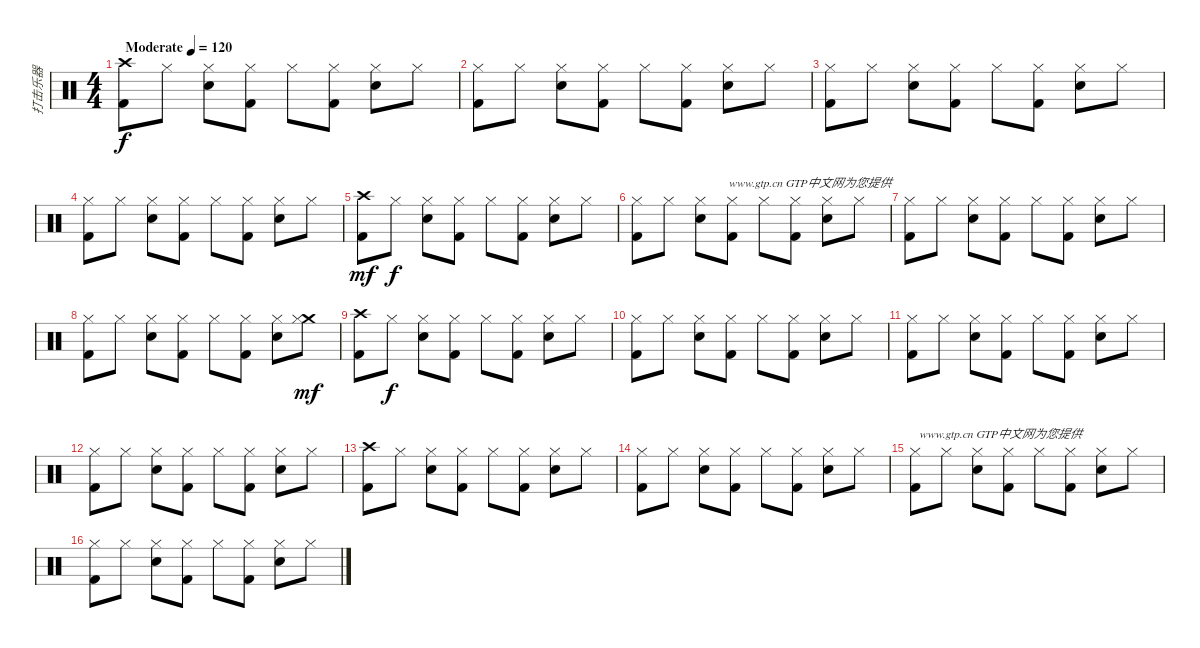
\track ("打击乐器" "打击乐器") {instrument percussion}
\staff {score}
\articulation defaults
\ts (4 4)
\tempo (120 "Moderate")
\clef neutral
\ks c
("Crash high (hit)" "Kick (hit) 2").8{dy f} "Hi-Hat (closed)".8 ("Hi-Hat (closed)" "Snare (hit) 2").8 ("Hi-Hat (closed)" "Kick (hit) 2").8 "Hi-Hat (closed)".8 ("Hi-Hat (closed)" "Kick (hit) 2").8 ("Hi-Hat (closed)" "Snare (hit) 2").8 "Hi-Hat (closed)".8 |
("Hi-Hat (closed)" "Kick (hit) 2").8 "Hi-Hat (closed)".8 ("Hi-Hat (closed)" "Snare (hit) 2").8 ("Hi-Hat (closed)" "Kick (hit) 2").8 "Hi-Hat (closed)".8 ("Hi-Hat (closed)" "Kick (hit) 2").8 ("Hi-Hat (closed)" "Snare (hit) 2").8 "Hi-Hat (closed)".8 |
("Hi-Hat (closed)" "Kick (hit) 2").8 "Hi-Hat (closed)".8 ("Hi-Hat (closed)" "Snare (hit) 2").8 ("Hi-Hat (closed)" "Kick (hit) 2").8 "Hi-Hat (closed)".8 ("Hi-Hat (closed)" "Kick (hit) 2").8 ("Hi-Hat (closed)" "Snare (hit) 2").8 "Hi-Hat (closed)".8 |
("Hi-Hat (closed)" "Kick (hit) 2").8 "Hi-Hat (closed)".8 ("Hi-Hat (closed)" "Snare (hit) 2").8 ("Hi-Hat (closed)" "Kick (hit) 2").8 "Hi-Hat (closed)".8 ("Hi-Hat (closed)" "Kick (hit) 2").8 ("Hi-Hat (closed)" "Snare (hit) 2").8 "Hi-Hat (closed)".8 |
("Crash high (hit)" "Kick (hit) 2").8{dy mf} "Hi-Hat (closed)".8{dy f} ("Hi-Hat (closed)" "Snare (hit) 2").8 ("Hi-Hat (closed)" "Kick (hit) 2").8 "Hi-Hat (closed)".8 ("Hi-Hat (closed)" "Kick (hit) 2").8 ("Hi-Hat (closed)" "Snare (hit) 2").8 "Hi-Hat (closed)".8 |
("Hi-Hat (closed)" "Kick (hit) 2").8 "Hi-Hat (closed)".8{txt "                    www.gtp.cn GTP中文网为您提供"} ("Hi-Hat (closed)" "Snare (hit) 2").8 ("Hi-Hat (closed)" "Kick (hit) 2").8 "Hi-Hat (closed)".8 ("Hi-Hat (closed)" "Kick (hit) 2").8 ("Hi-Hat (closed)" "Snare (hit) 2").8 "Hi-Hat (closed)".8 |
("Hi-Hat (closed)" "Kick (hit) 2").8 "Hi-Hat (closed)".8 ("Hi-Hat (closed)" "Snare (hit) 2").8 ("Hi-Hat (closed)" "Kick (hit) 2").8 "Hi-Hat (closed)".8 ("Hi-Hat (closed)" "Kick (hit) 2").8 ("Hi-Hat (closed)" "Snare (hit) 2").8 "Hi-Hat (closed)".8 |
("Hi-Hat (closed)" "Kick (hit) 2").8 "Hi-Hat (closed)".8 ("Hi-Hat (closed)" "Snare (hit) 2").8 ("Hi-Hat (closed)" "Kick (hit) 2").8 "Hi-Hat (closed)".8 ("Hi-Hat (closed)" "Kick (hit) 2").8 ("Hi-Hat (closed)" "Snare (hit) 2").8 ("Crash medium (hit)" "Hi-Hat (closed)").8{dy mf} |
("Crash high (hit)" "Kick (hit) 2").8 "Hi-Hat (closed)".8{dy f} ("Hi-Hat (closed)" "Snare (hit) 2").8 ("Hi-Hat (closed)" "Kick (hit) 2").8 "Hi-Hat (closed)".8 ("Hi-Hat (closed)" "Kick (hit) 2").8 ("Hi-Hat (closed)" "Snare (hit) 2").8 "Hi-Hat (closed)".8 |
("Hi-Hat (closed)" "Kick (hit) 2").8 "Hi-Hat (closed)".8 ("Hi-Hat (closed)" "Snare (hit) 2").8 ("Hi-Hat (closed)" "Kick (hit) 2").8 "Hi-Hat (closed)".8 ("Hi-Hat (closed)" "Kick (hit) 2").8 ("Hi-Hat (closed)" "Snare (hit) 2").8 "Hi-Hat (closed)".8 |
("Hi-Hat (closed)" "Kick (hit) 2").8 "Hi-Hat (closed)".8 ("Hi-Hat (closed)" "Snare (hit) 2").8 ("Hi-Hat (closed)" "Kick (hit) 2").8 "Hi-Hat (closed)".8 ("Hi-Hat (closed)" "Kick (hit) 2").8 ("Hi-Hat (closed)" "Snare (hit) 2").8 "Hi-Hat (closed)".8 |
("Hi-Hat (closed)" "Kick (hit) 2").8 "Hi-Hat (closed)".8 ("Hi-Hat (closed)" "Snare (hit) 2").8 ("Hi-Hat (closed)" "Kick (hit) 2").8 "Hi-Hat (closed)".8 ("Hi-Hat (closed)" "Kick (hit) 2").8 ("Hi-Hat (closed)" "Snare (hit) 2").8 "Hi-Hat (closed)".8 |
("Crash high (hit)" "Kick (hit) 2").8 "Hi-Hat (closed)".8 ("Hi-Hat (closed)" "Snare (hit) 2").8 ("Hi-Hat (closed)" "Kick (hit) 2").8 "Hi-Hat (closed)".8 ("Hi-Hat (closed)" "Kick (hit) 2").8 ("Hi-Hat (closed)" "Snare (hit) 2").8 "Hi-Hat (closed)".8 |
("Hi-Hat (closed)" "Kick (hit) 2").8 "Hi-Hat (closed)".8 ("Hi-Hat (closed)" "Snare (hit) 2").8 ("Hi-Hat (closed)" "Kick (hit) 2").8 "Hi-Hat (closed)".8 ("Hi-Hat (closed)" "Kick (hit) 2").8 ("Hi-Hat (closed)" "Snare (hit) 2").8 "Hi-Hat (closed)".8{txt "                    www.gtp.cn GTP中文网为您提供"} |
("Hi-Hat (closed)" "Kick (hit) 2").8 "Hi-Hat (closed)".8 ("Hi-Hat (closed)" "Snare (hit) 2").8 ("Hi-Hat (closed)" "Kick (hit) 2").8 "Hi-Hat (closed)".8 ("Hi-Hat (closed)" "Kick (hit) 2").8 ("Hi-Hat (closed)" "Snare (hit) 2").8 "Hi-Hat (closed)".8 |
("Hi-Hat (closed)" "Kick (hit) 2").8 "Hi-Hat (closed)".8 ("Hi-Hat (closed)" "Snare (hit) 2").8 ("Hi-Hat (closed)" "Kick (hit) 2").8 "Hi-Hat (closed)".8 ("Hi-Hat (closed)" "Kick (hit) 2").8 ("Hi-Hat (closed)" "Snare (hit) 2").8 "Hi-Hat (closed)".8
